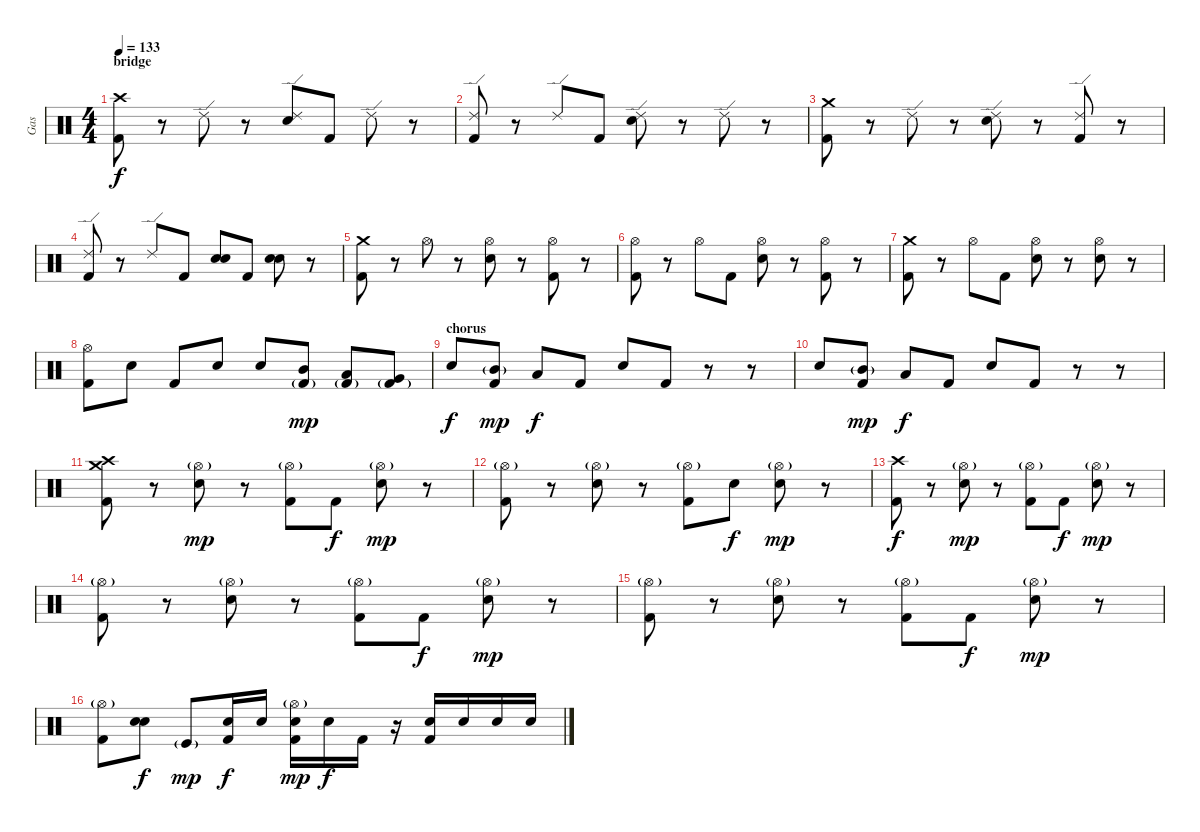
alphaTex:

\track ("Gas" "Gas") {instrument percussion}
\staff {score}
\articulation defaults
\ts (4 4)
\section ("" "bridge")
\tempo 133
\clef neutral
\ks c
("Crash high (hit)" "Kick (hit) 2").8{dy f} r.8 "Ride (edge) 2".8 r.8 ("Ride (edge) 2" "Electric Snare (hit)").8 "Kick (hit) 2".8 "Ride (edge) 2".8 r.8 |
("Ride (edge) 2" "Kick (hit) 2").8 r.8 "Ride (edge) 2".8 "Kick (hit) 2".8 ("Ride (edge) 2" "Electric Snare (hit)").8 r.8 "Ride (edge) 2".8 r.8 |
("Crash medium (hit)" "Kick (hit) 2").8 r.8 "Ride (edge) 2".8 r.8 ("Ride (edge) 2" "Electric Snare (hit)").8 r.8 ("Ride (edge) 2" "Kick (hit) 2").8 r.8 |
("Ride (edge) 2" "Kick (hit) 2").8 r.8 "Ride (edge) 2".8 "Kick (hit) 2".8 ("Electric Snare (hit)" "Electric Snare (hit)").8 "Kick (hit) 2".8 ("Electric Snare (hit)" "Electric Snare (hit)").8 r.8 |
("Crash medium (hit)" "Kick (hit) 2").8 r.8 "Hi-Hat (open)".8 r.8 ("Hi-Hat (open)" "Electric Snare (hit)").8 r.8 ("Hi-Hat (open)" "Kick (hit) 2").8 r.8 |
("Hi-Hat (open)" "Kick (hit) 2").8 r.8 "Hi-Hat (open)".8 "Kick (hit) 2".8 ("Hi-Hat (open)" "Electric Snare (hit)").8 r.8 ("Hi-Hat (open)" "Kick (hit) 2").8 r.8 |
("Crash medium (hit)" "Kick (hit) 2").8 r.8 "Hi-Hat (open)".8 "Kick (hit) 2".8 ("Hi-Hat (open)" "Electric Snare (hit)").8 r.8 ("Hi-Hat (open)" "Electric Snare (hit)").8 r.8 |
("Hi-Hat (open)" "Kick (hit) 2").8 "Electric Snare (hit)".8 "Kick (hit) 2".8 "Electric Snare (hit)".8 "Electric Snare (hit)".8 ("Kick (hit) 2"{g} "Mid Tom (hit)").8{dy mp} ("Kick (hit) 2"{g} "Low Tom (hit)").8 ("Kick (hit) 2"{g} "Very Low Tom (hit)").8 |
\section ("" "chorus")
"Electric Snare (hit)".8{dy f} ("Kick (hit) 2" "Mid Tom (hit)"{g}).8{dy mp} "Low Tom (hit)".8{dy f} "Kick (hit) 2".8 "Electric Snare (hit)".8 "Kick (hit) 2".8 r.8 r.8 |
"Electric Snare (hit)".8 ("Kick (hit) 2" "Mid Tom (hit)"{g}).8{dy mp} "Low Tom (hit)".8{dy f} "Kick (hit) 2".8 "Electric Snare (hit)".8 "Kick (hit) 2".8 r.8 r.8 |
("Crash high (hit)" "Crash medium (hit)" "Kick (hit) 2").8 r.8 ("Hi-Hat (open)"{g} "Electric Snare (hit)").8{dy mp} r.8 ("Hi-Hat (open)"{g} "Kick (hit) 2").8 "Kick (hit) 2".8{dy f} ("Hi-Hat (open)"{g} "Electric Snare (hit)").8{dy mp} r.8 |
("Hi-Hat (open)"{g} "Kick (hit) 2").8 r.8 ("Hi-Hat (open)"{g} "Electric Snare (hit)").8 r.8 ("Hi-Hat (open)"{g} "Kick (hit) 2").8 "Electric Snare (hit)".8{dy f} ("Hi-Hat (open)"{g} "Electric Snare (hit)").8{dy mp} r.8 |
("Crash high (hit)" "Kick (hit) 2").8{dy f} r.8 ("Hi-Hat (open)"{g} "Electric Snare (hit)").8{dy mp} r.8 ("Hi-Hat (open)"{g} "Kick (hit) 2").8 "Kick (hit) 2".8{dy f} ("Hi-Hat (open)"{g} "Electric Snare (hit)").8{dy mp} r.8 |
("Hi-Hat (open)"{g} "Kick (hit) 2").8 r.8 ("Hi-Hat (open)"{g} "Electric Snare (hit)").8 r.8 ("Hi-Hat (open)"{g} "Kick (hit) 2").8 "Kick (hit) 2".8{dy f} ("Hi-Hat (open)"{g} "Electric Snare (hit)").8{dy mp} r.8 |
("Hi-Hat (open)"{g} "Kick (hit) 2").8 r.8 ("Hi-Hat (open)"{g} "Electric Snare (hit)").8 r.8 ("Hi-Hat (open)"{g} "Kick (hit) 2").8 "Kick (hit) 2".8{dy f} ("Hi-Hat (open)"{g} "Electric Snare (hit)").8{dy mp} r.8 |
("Hi-Hat (open)"{g} "Kick (hit) 2").8 ("Electric Snare (hit)" "Electric Snare (hit)").8{dy f} "Kick (hit)"{g}.8{dy mp} ("Kick (hit) 2" "Electric Snare (hit)").16{dy f} "Electric Snare (hit)".16 ("Hi-Hat (open)"{g} "Kick (hit) 2" "Electric Snare (hit)").16{dy mp} "Electric Snare (hit)".16{dy f} "Kick (hit) 2".16 r.16 ("Kick (hit) 2" "Electric Snare (hit)").16 "Electric Snare (hit)".16 "Electric Snare (hit)".16 "Electric Snare (hit)".16
